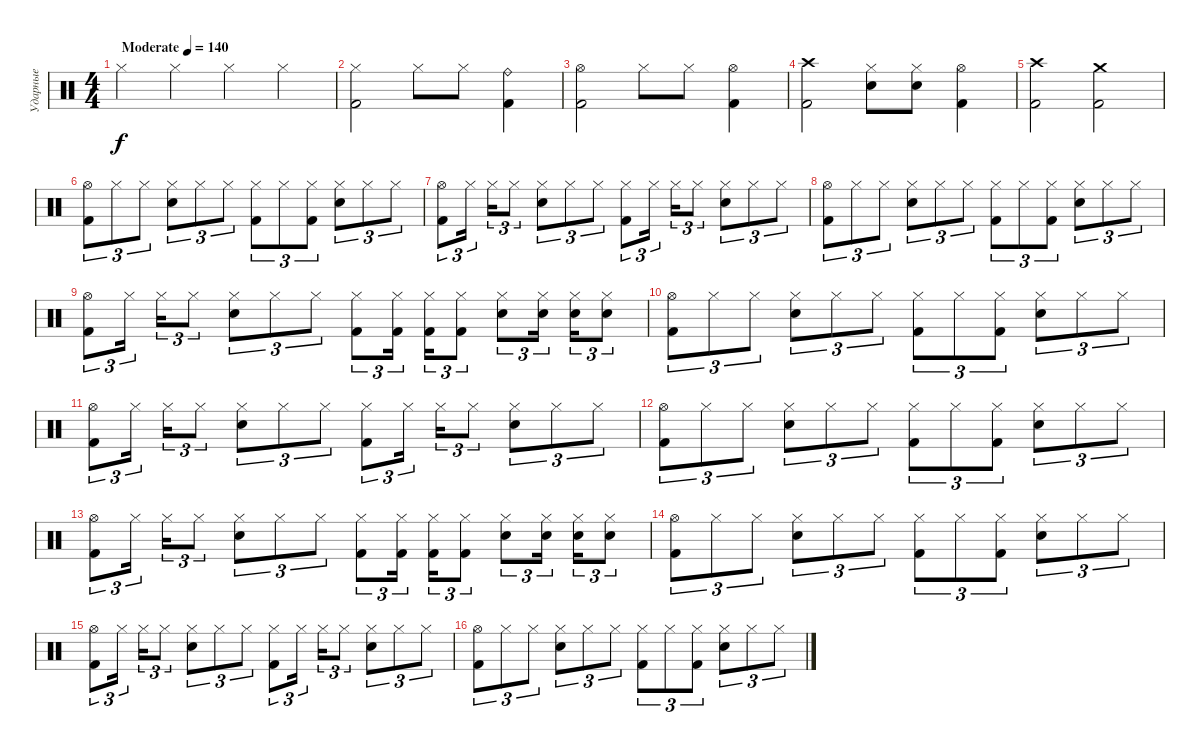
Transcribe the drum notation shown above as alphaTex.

\track ("Ударные" "Ударные") {instrument percussion}
\staff {score}
\articulation defaults
\ts (4 4)
\tempo (140 "Moderate")
\clef neutral
\ks c "Hi-Hat (closed)".4{dy f} "Hi-Hat (closed)".4 "Hi-Hat (closed)".4 "Hi-Hat (closed)".4
|
("Hi-Hat (closed)" "Kick (hit) 2").2 "Hi-Hat (closed)".8 "Hi-Hat (closed)".8 ("Ride (bell)" "Kick (hit) 2").4 |
("Hi-Hat (open)" "Kick (hit) 2").2 "Hi-Hat (closed)".8 "Hi-Hat (closed)".8 ("Hi-Hat (open)" "Kick (hit) 2").4 |
("Crash high (hit)" "Kick (hit) 2").2 ("Hi-Hat (closed)" "Snare (hit) 2").8 ("Hi-Hat (closed)" "Snare (hit) 2").8 ("Hi-Hat (open)" "Kick (hit) 2").4 |
("Crash high (hit)" "Kick (hit) 2").2 ("Crash medium (hit)" "Kick (hit) 2").2 |
("Hi-Hat (open)" "Kick (hit) 2").8{tu (3 2)} "Hi-Hat (closed)".8{tu (3 2)} "Hi-Hat (closed)".8{tu (3 2)} ("Hi-Hat (closed)" "Snare (hit) 2").8{tu (3 2)} "Hi-Hat (closed)".8{tu (3 2)} "Hi-Hat (closed)".8{tu (3 2)} ("Hi-Hat (closed)" "Kick (hit) 2").8{tu (3 2)} "Hi-Hat (closed)".8{tu (3 2)} ("Hi-Hat (closed)" "Kick (hit) 2").8{tu (3 2)} ("Hi-Hat (closed)" "Snare (hit) 2").8{tu (3 2)} "Hi-Hat (closed)".8{tu (3 2)} "Hi-Hat (closed)".8{tu (3 2)} |
("Hi-Hat (open)" "Kick (hit) 2").8{tu (3 2)} "Hi-Hat (closed)".16{tu (3 2) beam splitsecondary} "Hi-Hat (closed)".16{tu (3 2)} "Hi-Hat (closed)".8{tu (3 2)} ("Hi-Hat (closed)" "Snare (hit) 2").8{tu (3 2)} "Hi-Hat (closed)".8{tu (3 2)} "Hi-Hat (closed)".8{tu (3 2)} ("Hi-Hat (closed)" "Kick (hit) 2").8{tu (3 2)} "Hi-Hat (closed)".16{tu (3 2) beam splitsecondary} "Hi-Hat (closed)".16{tu (3 2)} "Hi-Hat (closed)".8{tu (3 2)} ("Hi-Hat (closed)" "Snare (hit) 2").8{tu (3 2)} "Hi-Hat (closed)".8{tu (3 2)} "Hi-Hat (closed)".8{tu (3 2)} |
("Hi-Hat (open)" "Kick (hit) 2").8{tu (3 2)} "Hi-Hat (closed)".8{tu (3 2)} "Hi-Hat (closed)".8{tu (3 2)} ("Hi-Hat (closed)" "Snare (hit) 2").8{tu (3 2)} "Hi-Hat (closed)".8{tu (3 2)} "Hi-Hat (closed)".8{tu (3 2)} ("Hi-Hat (closed)" "Kick (hit) 2").8{tu (3 2)} "Hi-Hat (closed)".8{tu (3 2)} ("Hi-Hat (closed)" "Kick (hit) 2").8{tu (3 2)} ("Hi-Hat (closed)" "Snare (hit) 2").8{tu (3 2)} "Hi-Hat (closed)".8{tu (3 2)} "Hi-Hat (closed)".8{tu (3 2)} |
("Hi-Hat (open)" "Kick (hit) 2").8{tu (3 2)} "Hi-Hat (closed)".16{tu (3 2) beam splitsecondary} "Hi-Hat (closed)".16{tu (3 2)} "Hi-Hat (closed)".8{tu (3 2)} ("Hi-Hat (closed)" "Snare (hit) 2").8{tu (3 2)} "Hi-Hat (closed)".8{tu (3 2)} "Hi-Hat (closed)".8{tu (3 2)} ("Hi-Hat (closed)" "Kick (hit) 2").8{tu (3 2)} ("Hi-Hat (closed)" "Kick (hit) 2").16{tu (3 2) beam splitsecondary} ("Hi-Hat (closed)" "Kick (hit) 2").16{tu (3 2)} ("Hi-Hat (closed)" "Kick (hit) 2").8{tu (3 2)} ("Hi-Hat (closed)" "Snare (hit) 2").8{tu (3 2)} ("Hi-Hat (closed)" "Snare (hit) 2").16{tu (3 2) beam splitsecondary} ("Hi-Hat (closed)" "Snare (hit) 2").16{tu (3 2)} ("Hi-Hat (closed)" "Snare (hit) 2").8{tu (3 2)} |
("Hi-Hat (open)" "Kick (hit) 2").8{tu (3 2)} "Hi-Hat (closed)".8{tu (3 2)} "Hi-Hat (closed)".8{tu (3 2)} ("Hi-Hat (closed)" "Snare (hit) 2").8{tu (3 2)} "Hi-Hat (closed)".8{tu (3 2)} "Hi-Hat (closed)".8{tu (3 2)} ("Hi-Hat (closed)" "Kick (hit) 2").8{tu (3 2)} "Hi-Hat (closed)".8{tu (3 2)} ("Hi-Hat (closed)" "Kick (hit) 2").8{tu (3 2)} ("Hi-Hat (closed)" "Snare (hit) 2").8{tu (3 2)} "Hi-Hat (closed)".8{tu (3 2)} "Hi-Hat (closed)".8{tu (3 2)} |
("Hi-Hat (open)" "Kick (hit) 2").8{tu (3 2)} "Hi-Hat (closed)".16{tu (3 2) beam splitsecondary} "Hi-Hat (closed)".16{tu (3 2)} "Hi-Hat (closed)".8{tu (3 2)} ("Hi-Hat (closed)" "Snare (hit) 2").8{tu (3 2)} "Hi-Hat (closed)".8{tu (3 2)} "Hi-Hat (closed)".8{tu (3 2)} ("Hi-Hat (closed)" "Kick (hit) 2").8{tu (3 2)} "Hi-Hat (closed)".16{tu (3 2) beam splitsecondary} "Hi-Hat (closed)".16{tu (3 2)} "Hi-Hat (closed)".8{tu (3 2)} ("Hi-Hat (closed)" "Snare (hit) 2").8{tu (3 2)} "Hi-Hat (closed)".8{tu (3 2)} "Hi-Hat (closed)".8{tu (3 2)} |
("Hi-Hat (open)" "Kick (hit) 2").8{tu (3 2)} "Hi-Hat (closed)".8{tu (3 2)} "Hi-Hat (closed)".8{tu (3 2)} ("Hi-Hat (closed)" "Snare (hit) 2").8{tu (3 2)} "Hi-Hat (closed)".8{tu (3 2)} "Hi-Hat (closed)".8{tu (3 2)} ("Hi-Hat (closed)" "Kick (hit) 2").8{tu (3 2)} "Hi-Hat (closed)".8{tu (3 2)} ("Hi-Hat (closed)" "Kick (hit) 2").8{tu (3 2)} ("Hi-Hat (closed)" "Snare (hit) 2").8{tu (3 2)} "Hi-Hat (closed)".8{tu (3 2)} "Hi-Hat (closed)".8{tu (3 2)} |
("Hi-Hat (open)" "Kick (hit) 2").8{tu (3 2)} "Hi-Hat (closed)".16{tu (3 2) beam splitsecondary} "Hi-Hat (closed)".16{tu (3 2)} "Hi-Hat (closed)".8{tu (3 2)} ("Hi-Hat (closed)" "Snare (hit) 2").8{tu (3 2)} "Hi-Hat (closed)".8{tu (3 2)} "Hi-Hat (closed)".8{tu (3 2)} ("Hi-Hat (closed)" "Kick (hit) 2").8{tu (3 2)} ("Hi-Hat (closed)" "Kick (hit) 2").16{tu (3 2) beam splitsecondary} ("Hi-Hat (closed)" "Kick (hit) 2").16{tu (3 2)} ("Hi-Hat (closed)" "Kick (hit) 2").8{tu (3 2)} ("Hi-Hat (closed)" "Snare (hit) 2").8{tu (3 2)} ("Hi-Hat (closed)" "Snare (hit) 2").16{tu (3 2) beam splitsecondary} ("Hi-Hat (closed)" "Snare (hit) 2").16{tu (3 2)} ("Hi-Hat (closed)" "Snare (hit) 2").8{tu (3 2)} |
("Hi-Hat (open)" "Kick (hit) 2").8{tu (3 2)} "Hi-Hat (closed)".8{tu (3 2)} "Hi-Hat (closed)".8{tu (3 2)} ("Hi-Hat (closed)" "Snare (hit) 2").8{tu (3 2)} "Hi-Hat (closed)".8{tu (3 2)} "Hi-Hat (closed)".8{tu (3 2)} ("Hi-Hat (closed)" "Kick (hit) 2").8{tu (3 2)} "Hi-Hat (closed)".8{tu (3 2)} ("Hi-Hat (closed)" "Kick (hit) 2").8{tu (3 2)} ("Hi-Hat (closed)" "Snare (hit) 2").8{tu (3 2)} "Hi-Hat (closed)".8{tu (3 2)} "Hi-Hat (closed)".8{tu (3 2)} |
("Hi-Hat (open)" "Kick (hit) 2").8{tu (3 2)} "Hi-Hat (closed)".16{tu (3 2) beam splitsecondary} "Hi-Hat (closed)".16{tu (3 2)} "Hi-Hat (closed)".8{tu (3 2)} ("Hi-Hat (closed)" "Snare (hit) 2").8{tu (3 2)} "Hi-Hat (closed)".8{tu (3 2)} "Hi-Hat (closed)".8{tu (3 2)} ("Hi-Hat (closed)" "Kick (hit) 2").8{tu (3 2)} "Hi-Hat (closed)".16{tu (3 2) beam splitsecondary} "Hi-Hat (closed)".16{tu (3 2)} "Hi-Hat (closed)".8{tu (3 2)} ("Hi-Hat (closed)" "Snare (hit) 2").8{tu (3 2)} "Hi-Hat (closed)".8{tu (3 2)} "Hi-Hat (closed)".8{tu (3 2)} |
("Hi-Hat (open)" "Kick (hit) 2").8{tu (3 2)} "Hi-Hat (closed)".8{tu (3 2)} "Hi-Hat (closed)".8{tu (3 2)} ("Hi-Hat (closed)" "Snare (hit) 2").8{tu (3 2)} "Hi-Hat (closed)".8{tu (3 2)} "Hi-Hat (closed)".8{tu (3 2)} ("Hi-Hat (closed)" "Kick (hit) 2").8{tu (3 2)} "Hi-Hat (closed)".8{tu (3 2)} ("Hi-Hat (closed)" "Kick (hit) 2").8{tu (3 2)} ("Hi-Hat (closed)" "Snare (hit) 2").8{tu (3 2)} "Hi-Hat (closed)".8{tu (3 2)} "Hi-Hat (closed)".8{tu (3 2)}
